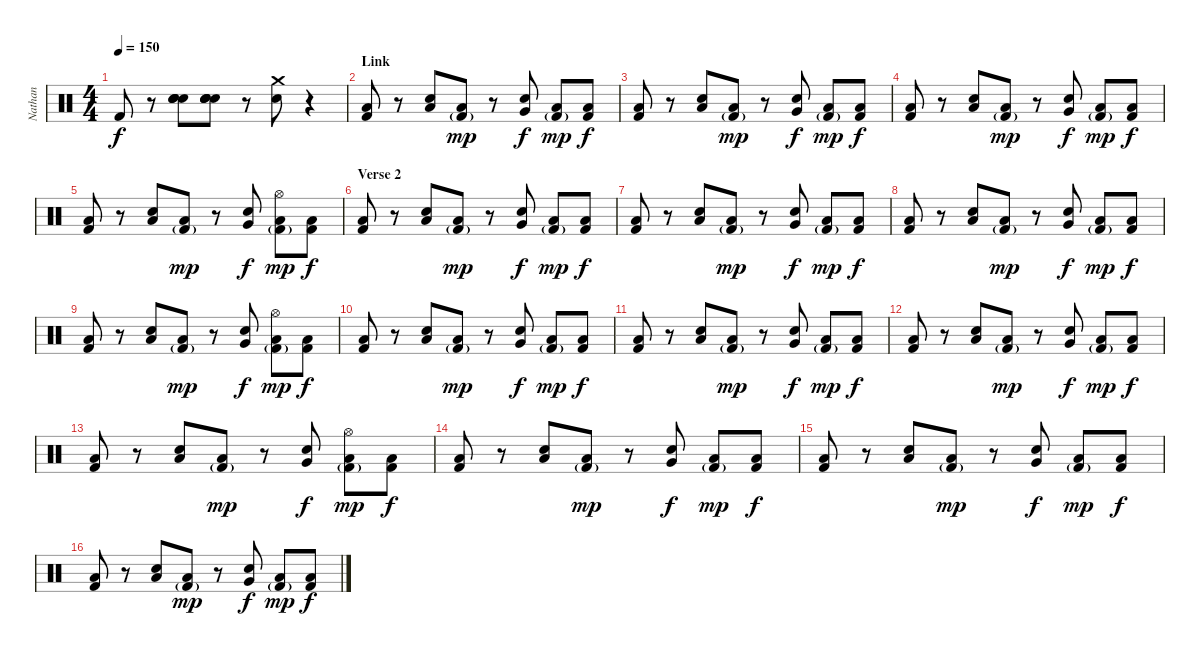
\track ("Nathan" "Nathan") {instrument percussion}
\staff {score}
\articulation defaults
\ts (4 4)
\tempo 150
\clef neutral
\ks c "Kick (hit) 2".8{dy f}
r.8 ("Hand Clap (hit)" "Hand Clap (hit)" "Hand Clap (hit)" "Hand Clap (hit)").8 ("Hand Clap (hit)" "Hand Clap (hit)" "Hand Clap (hit)" "Hand Clap (hit)").8 r.8 ("Crash medium (hit)" "Electric Snare (hit)").8 r.4 |
\section ("" "Link")
("Low Floor Tom (hit)" "Kick (hit) 2").8 r.8 ("Electric Snare (hit)" "Low Tom (hit)").8 ("Low Floor Tom (hit)" "Kick (hit) 2"{g}).8{dy mp} r.8 ("Electric Snare (hit)" "Very Low Tom (hit)").8{dy f} ("Low Floor Tom (hit)" "Kick (hit) 2"{g}).8{dy mp} ("Low Floor Tom (hit)" "Kick (hit) 2").8{dy f} |
("Low Floor Tom (hit)" "Kick (hit) 2").8 r.8 ("Electric Snare (hit)" "Low Tom (hit)").8 ("Low Floor Tom (hit)" "Kick (hit) 2"{g}).8{dy mp} r.8 ("Electric Snare (hit)" "Very Low Tom (hit)").8{dy f} ("Low Floor Tom (hit)" "Kick (hit) 2"{g}).8{dy mp} ("Low Floor Tom (hit)" "Kick (hit) 2").8{dy f} |
("Low Floor Tom (hit)" "Kick (hit) 2").8 r.8 ("Electric Snare (hit)" "Low Tom (hit)").8 ("Low Floor Tom (hit)" "Kick (hit) 2"{g}).8{dy mp} r.8 ("Electric Snare (hit)" "Very Low Tom (hit)").8{dy f} ("Low Floor Tom (hit)" "Kick (hit) 2"{g}).8{dy mp} ("Low Floor Tom (hit)" "Kick (hit) 2").8{dy f} |
("Low Floor Tom (hit)" "Kick (hit) 2").8 r.8 ("Electric Snare (hit)" "Low Tom (hit)").8 ("Low Floor Tom (hit)" "Kick (hit) 2"{g}).8{dy mp} r.8 ("Electric Snare (hit)" "Very Low Tom (hit)").8{dy f} ("Hi-Hat (open)" "Low Floor Tom (hit)" "Kick (hit) 2"{g}).8{dy mp} ("Low Floor Tom (hit)" "Kick (hit) 2").8{dy f} |
\section ("" "Verse 2")
("Low Floor Tom (hit)" "Kick (hit) 2").8 r.8 ("Electric Snare (hit)" "Low Tom (hit)").8 ("Low Floor Tom (hit)" "Kick (hit) 2"{g}).8{dy mp} r.8 ("Electric Snare (hit)" "Very Low Tom (hit)").8{dy f} ("Low Floor Tom (hit)" "Kick (hit) 2"{g}).8{dy mp} ("Low Floor Tom (hit)" "Kick (hit) 2").8{dy f} |
("Low Floor Tom (hit)" "Kick (hit) 2").8 r.8 ("Electric Snare (hit)" "Low Tom (hit)").8 ("Low Floor Tom (hit)" "Kick (hit) 2"{g}).8{dy mp} r.8 ("Electric Snare (hit)" "Very Low Tom (hit)").8{dy f} ("Low Floor Tom (hit)" "Kick (hit) 2"{g}).8{dy mp} ("Low Floor Tom (hit)" "Kick (hit) 2").8{dy f} |
("Low Floor Tom (hit)" "Kick (hit) 2").8 r.8 ("Electric Snare (hit)" "Low Tom (hit)").8 ("Low Floor Tom (hit)" "Kick (hit) 2"{g}).8{dy mp} r.8 ("Electric Snare (hit)" "Very Low Tom (hit)").8{dy f} ("Low Floor Tom (hit)" "Kick (hit) 2"{g}).8{dy mp} ("Low Floor Tom (hit)" "Kick (hit) 2").8{dy f} |
("Low Floor Tom (hit)" "Kick (hit) 2").8 r.8 ("Electric Snare (hit)" "Low Tom (hit)").8 ("Low Floor Tom (hit)" "Kick (hit) 2"{g}).8{dy mp} r.8 ("Electric Snare (hit)" "Very Low Tom (hit)").8{dy f} ("Hi-Hat (open)" "Low Floor Tom (hit)" "Kick (hit) 2"{g}).8{dy mp} ("Low Floor Tom (hit)" "Kick (hit) 2").8{dy f} |
("Low Floor Tom (hit)" "Kick (hit) 2").8 r.8 ("Electric Snare (hit)" "Low Tom (hit)").8 ("Low Floor Tom (hit)" "Kick (hit) 2"{g}).8{dy mp} r.8 ("Electric Snare (hit)" "Very Low Tom (hit)").8{dy f} ("Low Floor Tom (hit)" "Kick (hit) 2"{g}).8{dy mp} ("Low Floor Tom (hit)" "Kick (hit) 2").8{dy f} |
("Low Floor Tom (hit)" "Kick (hit) 2").8 r.8 ("Electric Snare (hit)" "Low Tom (hit)").8 ("Low Floor Tom (hit)" "Kick (hit) 2"{g}).8{dy mp} r.8 ("Electric Snare (hit)" "Very Low Tom (hit)").8{dy f} ("Low Floor Tom (hit)" "Kick (hit) 2"{g}).8{dy mp} ("Low Floor Tom (hit)" "Kick (hit) 2").8{dy f} |
("Low Floor Tom (hit)" "Kick (hit) 2").8 r.8 ("Electric Snare (hit)" "Low Tom (hit)").8 ("Low Floor Tom (hit)" "Kick (hit) 2"{g}).8{dy mp} r.8 ("Electric Snare (hit)" "Very Low Tom (hit)").8{dy f} ("Low Floor Tom (hit)" "Kick (hit) 2"{g}).8{dy mp} ("Low Floor Tom (hit)" "Kick (hit) 2").8{dy f} |
("Low Floor Tom (hit)" "Kick (hit) 2").8 r.8 ("Electric Snare (hit)" "Low Tom (hit)").8 ("Low Floor Tom (hit)" "Kick (hit) 2"{g}).8{dy mp} r.8 ("Electric Snare (hit)" "Very Low Tom (hit)").8{dy f} ("Hi-Hat (open)" "Low Floor Tom (hit)" "Kick (hit) 2"{g}).8{dy mp} ("Low Floor Tom (hit)" "Kick (hit) 2").8{dy f} |
("Low Floor Tom (hit)" "Kick (hit) 2").8 r.8 ("Electric Snare (hit)" "Low Tom (hit)").8 ("Low Floor Tom (hit)" "Kick (hit) 2"{g}).8{dy mp} r.8 ("Electric Snare (hit)" "Very Low Tom (hit)").8{dy f} ("Low Floor Tom (hit)" "Kick (hit) 2"{g}).8{dy mp} ("Low Floor Tom (hit)" "Kick (hit) 2").8{dy f} |
("Low Floor Tom (hit)" "Kick (hit) 2").8 r.8 ("Electric Snare (hit)" "Low Tom (hit)").8 ("Low Floor Tom (hit)" "Kick (hit) 2"{g}).8{dy mp} r.8 ("Electric Snare (hit)" "Very Low Tom (hit)").8{dy f} ("Low Floor Tom (hit)" "Kick (hit) 2"{g}).8{dy mp} ("Low Floor Tom (hit)" "Kick (hit) 2").8{dy f} |
("Low Floor Tom (hit)" "Kick (hit) 2").8 r.8 ("Electric Snare (hit)" "Low Tom (hit)").8 ("Low Floor Tom (hit)" "Kick (hit) 2"{g}).8{dy mp} r.8 ("Electric Snare (hit)" "Very Low Tom (hit)").8{dy f} ("Low Floor Tom (hit)" "Kick (hit) 2"{g}).8{dy mp} ("Low Floor Tom (hit)" "Kick (hit) 2").8{dy f}
